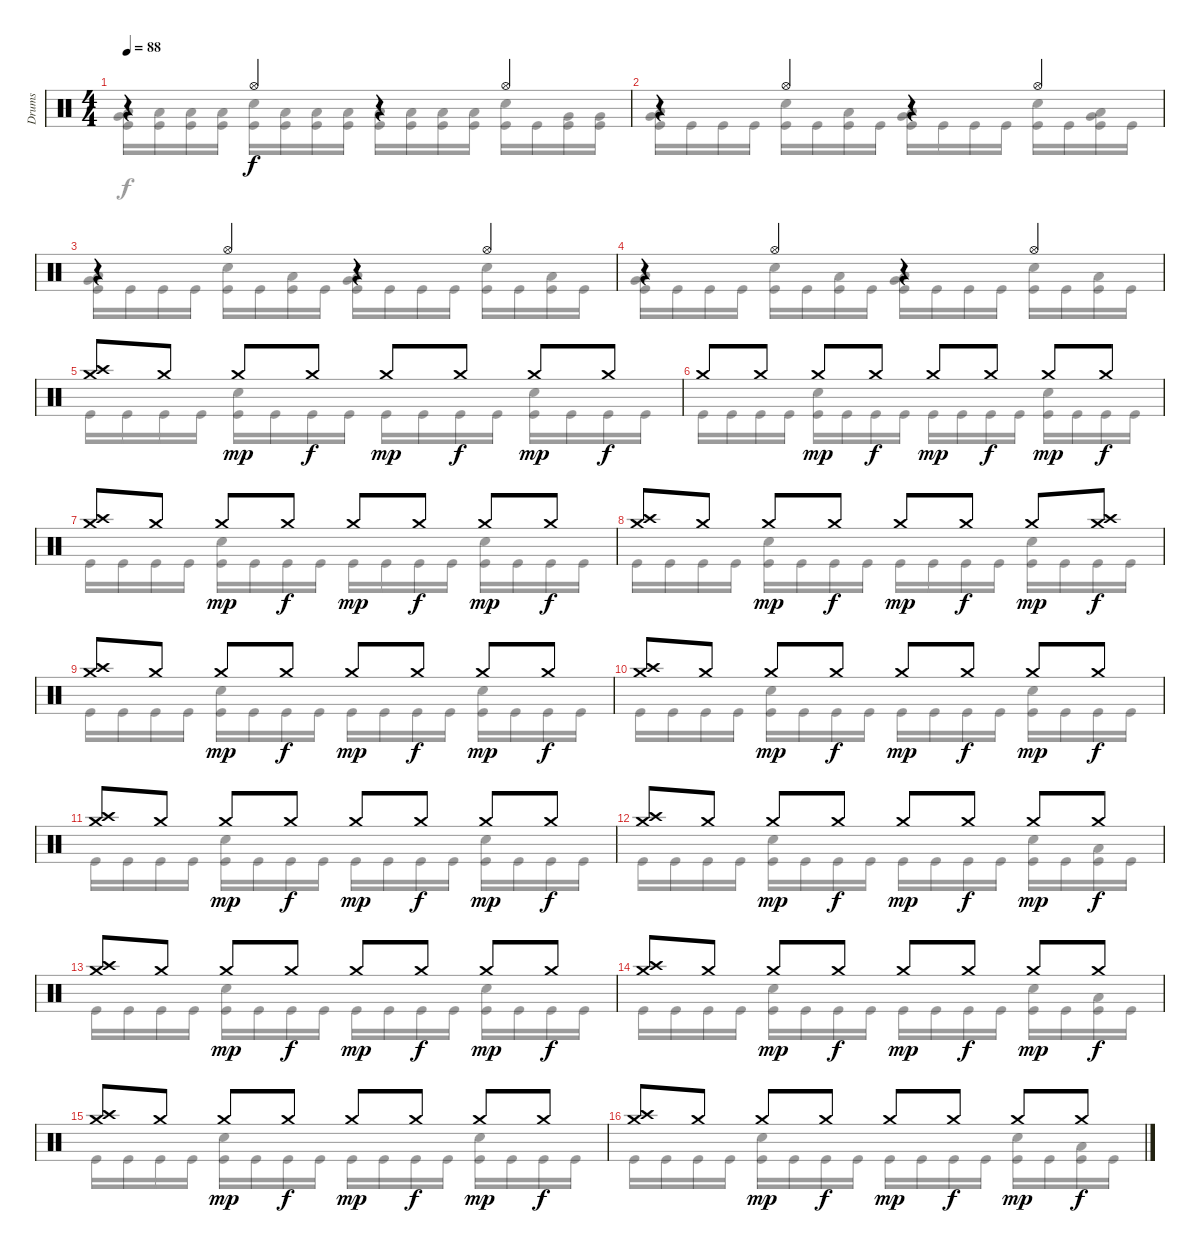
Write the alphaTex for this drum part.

\track ("Drums" "Drums") {instrument percussion}
\staff {score}
\articulation defaults
\voice
\ts (4 4)
\tempo 88
\clef neutral
\ks c
r.4{dy f} "Hi-Hat (open)".4 r.4 "Hi-Hat (open)".4 |
r.4 "Hi-Hat (open)".4 r.4 "Hi-Hat (open)".4 |
r.4 "Hi-Hat (open)".4 r.4 "Hi-Hat (open)".4 |
r.4 "Hi-Hat (open)".4 r.4 "Hi-Hat (open)".4 |
("Crash medium (hit)" "Crash high (hit)").8 "Crash medium (hit)".8 "Crash medium (hit)".8{dy mp} "Crash medium (hit)".8{dy f} "Crash medium (hit)".8{dy mp} "Crash medium (hit)".8{dy f} "Crash medium (hit)".8{dy mp} "Crash medium (hit)".8{dy f} |
"Crash medium (hit)".8 "Crash medium (hit)".8 "Crash medium (hit)".8{dy mp} "Crash medium (hit)".8{dy f} "Crash medium (hit)".8{dy mp} "Crash medium (hit)".8{dy f} "Crash medium (hit)".8{dy mp} "Crash medium (hit)".8{dy f} |
("Crash medium (hit)" "Crash high (hit)").8 "Crash medium (hit)".8 "Crash medium (hit)".8{dy mp} "Crash medium (hit)".8{dy f} "Crash medium (hit)".8{dy mp} "Crash medium (hit)".8{dy f} "Crash medium (hit)".8{dy mp} "Crash medium (hit)".8{dy f} |
("Crash medium (hit)" "Crash high (hit)").8 "Crash medium (hit)".8 "Crash medium (hit)".8{dy mp} "Crash medium (hit)".8{dy f} "Crash medium (hit)".8{dy mp} "Crash medium (hit)".8{dy f} "Crash medium (hit)".8{dy mp} ("Crash medium (hit)" "Crash high (hit)").8{dy f} |
("Crash medium (hit)" "Crash high (hit)").8 "Crash medium (hit)".8 "Crash medium (hit)".8{dy mp} "Crash medium (hit)".8{dy f} "Crash medium (hit)".8{dy mp} "Crash medium (hit)".8{dy f} "Crash medium (hit)".8{dy mp} "Crash medium (hit)".8{dy f} |
("Crash medium (hit)" "Crash high (hit)").8 "Crash medium (hit)".8 "Crash medium (hit)".8{dy mp} "Crash medium (hit)".8{dy f} "Crash medium (hit)".8{dy mp} "Crash medium (hit)".8{dy f} "Crash medium (hit)".8{dy mp} "Crash medium (hit)".8{dy f} |
("Crash medium (hit)" "Crash high (hit)").8 "Crash medium (hit)".8 "Crash medium (hit)".8{dy mp} "Crash medium (hit)".8{dy f} "Crash medium (hit)".8{dy mp} "Crash medium (hit)".8{dy f} "Crash medium (hit)".8{dy mp} "Crash medium (hit)".8{dy f} |
("Crash medium (hit)" "Crash high (hit)").8 "Crash medium (hit)".8 "Crash medium (hit)".8{dy mp} "Crash medium (hit)".8{dy f} "Crash medium (hit)".8{dy mp} "Crash medium (hit)".8{dy f} "Crash medium (hit)".8{dy mp} "Crash medium (hit)".8{dy f} |
("Crash medium (hit)" "Crash high (hit)").8 "Crash medium (hit)".8 "Crash medium (hit)".8{dy mp} "Crash medium (hit)".8{dy f} "Crash medium (hit)".8{dy mp} "Crash medium (hit)".8{dy f} "Crash medium (hit)".8{dy mp} "Crash medium (hit)".8{dy f} |
("Crash medium (hit)" "Crash high (hit)").8 "Crash medium (hit)".8 "Crash medium (hit)".8{dy mp} "Crash medium (hit)".8{dy f} "Crash medium (hit)".8{dy mp} "Crash medium (hit)".8{dy f} "Crash medium (hit)".8{dy mp} "Crash medium (hit)".8{dy f} |
("Crash medium (hit)" "Crash high (hit)").8 "Crash medium (hit)".8 "Crash medium (hit)".8{dy mp} "Crash medium (hit)".8{dy f} "Crash medium (hit)".8{dy mp} "Crash medium (hit)".8{dy f} "Crash medium (hit)".8{dy mp} "Crash medium (hit)".8{dy f} |
("Crash medium (hit)" "Crash high (hit)").8 "Crash medium (hit)".8 "Crash medium (hit)".8{dy mp} "Crash medium (hit)".8{dy f} "Crash medium (hit)".8{dy mp} "Crash medium (hit)".8{dy f} "Crash medium (hit)".8{dy mp} "Crash medium (hit)".8{dy f}
\voice
\clef neutral
\ottava regular
\simile none
\ks c
("Very Low Tom (hit)" "Low Floor Tom (hit)" "Kick (hit)").16{dy f} ("Low Floor Tom (hit)" "Kick (hit)").16 ("Low Floor Tom (hit)" "Kick (hit)").16 ("Low Floor Tom (hit)" "Kick (hit)").16 ("Snare (hit) 2" "Kick (hit)").16 ("Low Floor Tom (hit)" "Kick (hit)").16 ("Low Floor Tom (hit)" "Kick (hit)").16 ("Low Floor Tom (hit)" "Kick (hit)").16 ("Low Floor Tom (hit)" "Kick (hit)").16 ("Low Floor Tom (hit)" "Kick (hit)").16 ("Low Floor Tom (hit)" "Kick (hit)").16 ("Low Floor Tom (hit)" "Kick (hit)").16 ("Snare (hit) 2" "Kick (hit)").16 "Kick (hit)".16 ("Very Low Tom (hit)" "Kick (hit)").16 ("Very Low Tom (hit)" "Kick (hit)").16 |
("Very Low Tom (hit)" "Low Floor Tom (hit)" "Kick (hit)").16 "Kick (hit)".16 "Kick (hit)".16 "Kick (hit)".16 ("Snare (hit) 2" "Kick (hit)").16 "Kick (hit)".16 ("Low Tom (hit)" "Kick (hit)").16 "Kick (hit)".16 ("Very Low Tom (hit)" "Low Floor Tom (hit)" "Kick (hit)").16 "Kick (hit)".16 "Kick (hit)".16 "Kick (hit)".16 ("Snare (hit) 2" "Kick (hit)").16 "Kick (hit)".16 ("Very Low Tom (hit)" "Low Tom (hit)" "Kick (hit)").16 "Kick (hit)".16 |
("Very Low Tom (hit)" "Low Floor Tom (hit)" "Kick (hit)").16 "Kick (hit)".16 "Kick (hit)".16 "Kick (hit)".16 ("Snare (hit) 2" "Kick (hit)").16 "Kick (hit)".16 ("Low Tom (hit)" "Kick (hit)").16 "Kick (hit)".16 ("Very Low Tom (hit)" "Low Floor Tom (hit)" "Kick (hit)").16 "Kick (hit)".16 "Kick (hit)".16 "Kick (hit)".16 ("Snare (hit) 2" "Kick (hit)").16 "Kick (hit)".16 ("Low Tom (hit)" "Kick (hit)").16 "Kick (hit)".16 |
("Very Low Tom (hit)" "Low Floor Tom (hit)" "Kick (hit)").16 "Kick (hit)".16 "Kick (hit)".16 "Kick (hit)".16 ("Snare (hit) 2" "Kick (hit)").16 "Kick (hit)".16 ("Low Tom (hit)" "Kick (hit)").16 "Kick (hit)".16 ("Very Low Tom (hit)" "Low Floor Tom (hit)" "Kick (hit)").16 "Kick (hit)".16 "Kick (hit)".16 "Kick (hit)".16 ("Snare (hit) 2" "Kick (hit)").16 "Kick (hit)".16 ("Low Tom (hit)" "Kick (hit)").16 "Kick (hit)".16 |
"Kick (hit)".16 "Kick (hit)".16 "Kick (hit)".16 "Kick (hit)".16 ("Snare (hit) 2" "Kick (hit)").16 "Kick (hit)".16 "Kick (hit)".16 "Kick (hit)".16 "Kick (hit)".16 "Kick (hit)".16 "Kick (hit)".16 "Kick (hit)".16 ("Snare (hit) 2" "Kick (hit)").16 "Kick (hit)".16 "Kick (hit)".16 "Kick (hit)".16 |
"Kick (hit)".16 "Kick (hit)".16 "Kick (hit)".16 "Kick (hit)".16 ("Snare (hit) 2" "Kick (hit)").16 "Kick (hit)".16 "Kick (hit)".16 "Kick (hit)".16 "Kick (hit)".16 "Kick (hit)".16 "Kick (hit)".16 "Kick (hit)".16 ("Snare (hit) 2" "Kick (hit)").16 "Kick (hit)".16 "Kick (hit)".16 "Kick (hit)".16 |
"Kick (hit)".16 "Kick (hit)".16 "Kick (hit)".16 "Kick (hit)".16 ("Snare (hit) 2" "Kick (hit)").16 "Kick (hit)".16 "Kick (hit)".16 "Kick (hit)".16 "Kick (hit)".16 "Kick (hit)".16 "Kick (hit)".16 "Kick (hit)".16 ("Snare (hit) 2" "Kick (hit)").16 "Kick (hit)".16 "Kick (hit)".16 "Kick (hit)".16 |
"Kick (hit)".16 "Kick (hit)".16 "Kick (hit)".16 "Kick (hit)".16 ("Snare (hit) 2" "Kick (hit)").16 "Kick (hit)".16 "Kick (hit)".16 "Kick (hit)".16 "Kick (hit)".16 "Kick (hit)".16 "Kick (hit)".16 "Kick (hit)".16 ("Snare (hit) 2" "Kick (hit)").16 "Kick (hit)".16 "Kick (hit)".16 "Kick (hit)".16 |
"Kick (hit)".16 "Kick (hit)".16 "Kick (hit)".16 "Kick (hit)".16 ("Snare (hit) 2" "Kick (hit)").16 "Kick (hit)".16 "Kick (hit)".16 "Kick (hit)".16 "Kick (hit)".16 "Kick (hit)".16 "Kick (hit)".16 "Kick (hit)".16 ("Snare (hit) 2" "Kick (hit)").16 "Kick (hit)".16 "Kick (hit)".16 "Kick (hit)".16 |
"Kick (hit)".16 "Kick (hit)".16 "Kick (hit)".16 "Kick (hit)".16 ("Snare (hit) 2" "Kick (hit)").16 "Kick (hit)".16 "Kick (hit)".16 "Kick (hit)".16 "Kick (hit)".16 "Kick (hit)".16 "Kick (hit)".16 "Kick (hit)".16 ("Snare (hit) 2" "Kick (hit)").16 "Kick (hit)".16 "Kick (hit)".16 "Kick (hit)".16 |
"Kick (hit)".16 "Kick (hit)".16 "Kick (hit)".16 "Kick (hit)".16 ("Snare (hit) 2" "Kick (hit)").16 "Kick (hit)".16 "Kick (hit)".16 "Kick (hit)".16 "Kick (hit)".16 "Kick (hit)".16 "Kick (hit)".16 "Kick (hit)".16 ("Snare (hit) 2" "Kick (hit)").16 "Kick (hit)".16 "Kick (hit)".16 "Kick (hit)".16 |
"Kick (hit)".16 "Kick (hit)".16 "Kick (hit)".16 "Kick (hit)".16 ("Snare (hit) 2" "Kick (hit)").16 "Kick (hit)".16 "Kick (hit)".16 "Kick (hit)".16 "Kick (hit)".16 "Kick (hit)".16 "Kick (hit)".16 "Kick (hit)".16 ("Snare (hit) 2" "Kick (hit)").16 "Kick (hit)".16 ("Low Floor Tom (hit)" "Kick (hit)").16 "Kick (hit)".16 |
"Kick (hit)".16 "Kick (hit)".16 "Kick (hit)".16 "Kick (hit)".16 ("Snare (hit) 2" "Kick (hit)").16 "Kick (hit)".16 "Kick (hit)".16 "Kick (hit)".16 "Kick (hit)".16 "Kick (hit)".16 "Kick (hit)".16 "Kick (hit)".16 ("Snare (hit) 2" "Kick (hit)").16 "Kick (hit)".16 "Kick (hit)".16 "Kick (hit)".16 |
"Kick (hit)".16 "Kick (hit)".16 "Kick (hit)".16 "Kick (hit)".16 ("Snare (hit) 2" "Kick (hit)").16 "Kick (hit)".16 "Kick (hit)".16 "Kick (hit)".16 "Kick (hit)".16 "Kick (hit)".16 "Kick (hit)".16 "Kick (hit)".16 ("Snare (hit) 2" "Kick (hit)").16 "Kick (hit)".16 ("Low Floor Tom (hit)" "Kick (hit)").16 "Kick (hit)".16 |
"Kick (hit)".16 "Kick (hit)".16 "Kick (hit)".16 "Kick (hit)".16 ("Snare (hit) 2" "Kick (hit)").16 "Kick (hit)".16 "Kick (hit)".16 "Kick (hit)".16 "Kick (hit)".16 "Kick (hit)".16 "Kick (hit)".16 "Kick (hit)".16 ("Snare (hit) 2" "Kick (hit)").16 "Kick (hit)".16 "Kick (hit)".16 "Kick (hit)".16 |
"Kick (hit)".16 "Kick (hit)".16 "Kick (hit)".16 "Kick (hit)".16 ("Snare (hit) 2" "Kick (hit)").16 "Kick (hit)".16 "Kick (hit)".16 "Kick (hit)".16 "Kick (hit)".16 "Kick (hit)".16 "Kick (hit)".16 "Kick (hit)".16 ("Snare (hit) 2" "Kick (hit)").16 "Kick (hit)".16 ("Low Floor Tom (hit)" "Kick (hit)").16 "Kick (hit)".16
